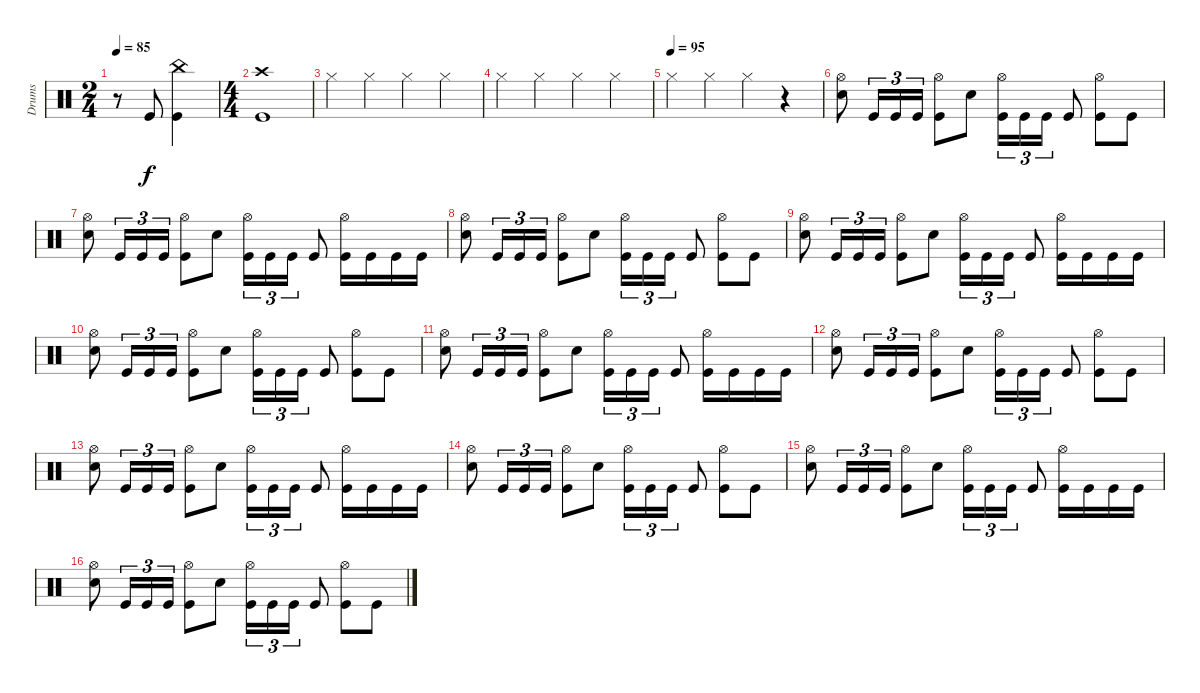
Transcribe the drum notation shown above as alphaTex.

\track ("Drums" "Drums") {instrument percussion}
\staff {score}
\articulation defaults
\ts (2 4)
\tempo 85
\clef neutral
\ks c
r.8{dy f} "Kick (hit)".8 ("China (hit)" "Kick (hit)").4 |
\ts (4 4)
("Crash high (hit)" "Kick (hit)").1 |
"Hi-Hat (closed)".4 "Hi-Hat (closed)".4 "Hi-Hat (closed)".4 "Hi-Hat (closed)".4 |
"Hi-Hat (closed)".4 "Hi-Hat (closed)".4 "Hi-Hat (closed)".4 "Hi-Hat (closed)".4 |
\tempo (95)
"Hi-Hat (closed)".4 "Hi-Hat (closed)".4 "Hi-Hat (closed)".4 r.4 |
("Hi-Hat (open)" "Snare (hit) 2").8 "Kick (hit)".16{tu (3 2)} "Kick (hit)".16{tu (3 2)} "Kick (hit)".16{tu (3 2)} ("Hi-Hat (open)" "Kick (hit)").8 "Snare (hit) 2".8 ("Hi-Hat (open)" "Kick (hit)").16{tu (3 2)} "Kick (hit)".16{tu (3 2)} "Kick (hit)".16{tu (3 2)} "Kick (hit)".8 ("Hi-Hat (open)" "Kick (hit)").8 "Kick (hit)".8 |
("Hi-Hat (open)" "Snare (hit) 2").8 "Kick (hit)".16{tu (3 2)} "Kick (hit)".16{tu (3 2)} "Kick (hit)".16{tu (3 2)} ("Hi-Hat (open)" "Kick (hit)").8 "Snare (hit) 2".8 ("Hi-Hat (open)" "Kick (hit)").16{tu (3 2)} "Kick (hit)".16{tu (3 2)} "Kick (hit)".16{tu (3 2)} "Kick (hit)".8 ("Hi-Hat (open)" "Kick (hit)").16 "Kick (hit)".16 "Kick (hit)".16 "Kick (hit)".16 |
("Hi-Hat (open)" "Snare (hit) 2").8 "Kick (hit)".16{tu (3 2)} "Kick (hit)".16{tu (3 2)} "Kick (hit)".16{tu (3 2)} ("Hi-Hat (open)" "Kick (hit)").8 "Snare (hit) 2".8 ("Hi-Hat (open)" "Kick (hit)").16{tu (3 2)} "Kick (hit)".16{tu (3 2)} "Kick (hit)".16{tu (3 2)} "Kick (hit)".8 ("Hi-Hat (open)" "Kick (hit)").8 "Kick (hit)".8 |
("Hi-Hat (open)" "Snare (hit) 2").8 "Kick (hit)".16{tu (3 2)} "Kick (hit)".16{tu (3 2)} "Kick (hit)".16{tu (3 2)} ("Hi-Hat (open)" "Kick (hit)").8 "Snare (hit) 2".8 ("Hi-Hat (open)" "Kick (hit)").16{tu (3 2)} "Kick (hit)".16{tu (3 2)} "Kick (hit)".16{tu (3 2)} "Kick (hit)".8 ("Hi-Hat (open)" "Kick (hit)").16 "Kick (hit)".16 "Kick (hit)".16 "Kick (hit)".16 |
("Hi-Hat (open)" "Snare (hit) 2").8 "Kick (hit)".16{tu (3 2)} "Kick (hit)".16{tu (3 2)} "Kick (hit)".16{tu (3 2)} ("Hi-Hat (open)" "Kick (hit)").8 "Snare (hit) 2".8 ("Hi-Hat (open)" "Kick (hit)").16{tu (3 2)} "Kick (hit)".16{tu (3 2)} "Kick (hit)".16{tu (3 2)} "Kick (hit)".8 ("Hi-Hat (open)" "Kick (hit)").8 "Kick (hit)".8 |
("Hi-Hat (open)" "Snare (hit) 2").8 "Kick (hit)".16{tu (3 2)} "Kick (hit)".16{tu (3 2)} "Kick (hit)".16{tu (3 2)} ("Hi-Hat (open)" "Kick (hit)").8 "Snare (hit) 2".8 ("Hi-Hat (open)" "Kick (hit)").16{tu (3 2)} "Kick (hit)".16{tu (3 2)} "Kick (hit)".16{tu (3 2)} "Kick (hit)".8 ("Hi-Hat (open)" "Kick (hit)").16 "Kick (hit)".16 "Kick (hit)".16 "Kick (hit)".16 |
("Hi-Hat (open)" "Snare (hit) 2").8 "Kick (hit)".16{tu (3 2)} "Kick (hit)".16{tu (3 2)} "Kick (hit)".16{tu (3 2)} ("Hi-Hat (open)" "Kick (hit)").8 "Snare (hit) 2".8 ("Hi-Hat (open)" "Kick (hit)").16{tu (3 2)} "Kick (hit)".16{tu (3 2)} "Kick (hit)".16{tu (3 2)} "Kick (hit)".8 ("Hi-Hat (open)" "Kick (hit)").8 "Kick (hit)".8 |
("Hi-Hat (open)" "Snare (hit) 2").8 "Kick (hit)".16{tu (3 2)} "Kick (hit)".16{tu (3 2)} "Kick (hit)".16{tu (3 2)} ("Hi-Hat (open)" "Kick (hit)").8 "Snare (hit) 2".8 ("Hi-Hat (open)" "Kick (hit)").16{tu (3 2)} "Kick (hit)".16{tu (3 2)} "Kick (hit)".16{tu (3 2)} "Kick (hit)".8 ("Hi-Hat (open)" "Kick (hit)").16 "Kick (hit)".16 "Kick (hit)".16 "Kick (hit)".16 |
("Hi-Hat (open)" "Snare (hit) 2").8 "Kick (hit)".16{tu (3 2)} "Kick (hit)".16{tu (3 2)} "Kick (hit)".16{tu (3 2)} ("Hi-Hat (open)" "Kick (hit)").8 "Snare (hit) 2".8 ("Hi-Hat (open)" "Kick (hit)").16{tu (3 2)} "Kick (hit)".16{tu (3 2)} "Kick (hit)".16{tu (3 2)} "Kick (hit)".8 ("Hi-Hat (open)" "Kick (hit)").8 "Kick (hit)".8 |
("Hi-Hat (open)" "Snare (hit) 2").8 "Kick (hit)".16{tu (3 2)} "Kick (hit)".16{tu (3 2)} "Kick (hit)".16{tu (3 2)} ("Hi-Hat (open)" "Kick (hit)").8 "Snare (hit) 2".8 ("Hi-Hat (open)" "Kick (hit)").16{tu (3 2)} "Kick (hit)".16{tu (3 2)} "Kick (hit)".16{tu (3 2)} "Kick (hit)".8 ("Hi-Hat (open)" "Kick (hit)").16 "Kick (hit)".16 "Kick (hit)".16 "Kick (hit)".16 |
("Hi-Hat (open)" "Snare (hit) 2").8 "Kick (hit)".16{tu (3 2)} "Kick (hit)".16{tu (3 2)} "Kick (hit)".16{tu (3 2)} ("Hi-Hat (open)" "Kick (hit)").8 "Snare (hit) 2".8 ("Hi-Hat (open)" "Kick (hit)").16{tu (3 2)} "Kick (hit)".16{tu (3 2)} "Kick (hit)".16{tu (3 2)} "Kick (hit)".8 ("Hi-Hat (open)" "Kick (hit)").8 "Kick (hit)".8
